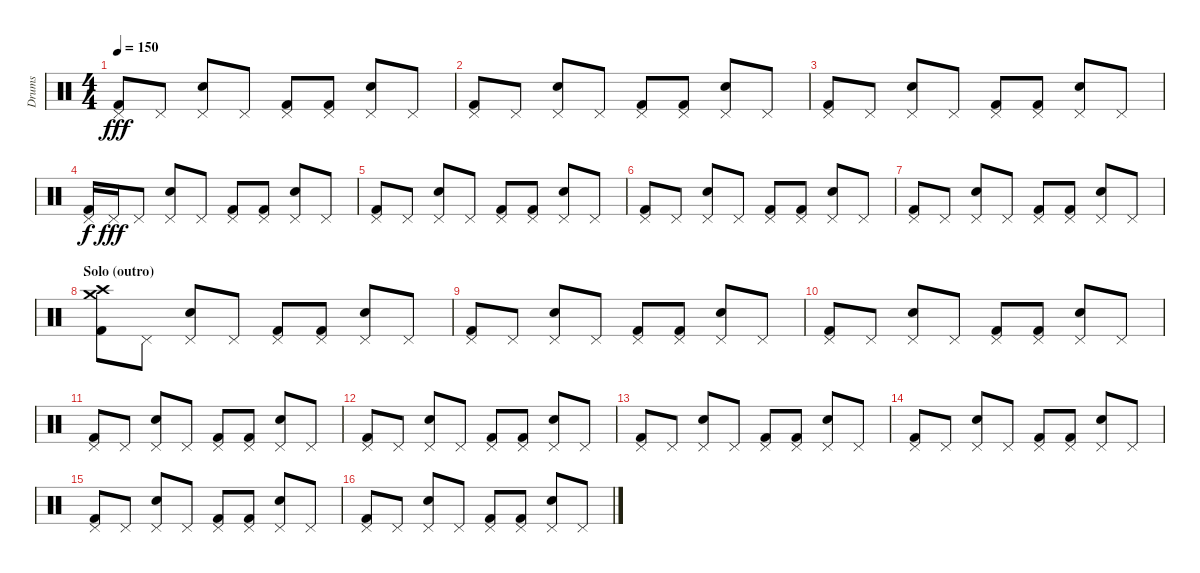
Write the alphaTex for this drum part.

\track ("Drums" "Drums") {instrument percussion}
\staff {score}
\articulation defaults
\ts (4 4)
\tempo 150
\clef neutral
\ks c
("Pedal Hi-Hat (hit)" "Kick (hit) 2").8{dy fff} "Pedal Hi-Hat (hit)".8 ("Pedal Hi-Hat (hit)" "Snare (hit) 2").8 "Pedal Hi-Hat (hit)".8 ("Pedal Hi-Hat (hit)" "Kick (hit) 2").8 ("Pedal Hi-Hat (hit)" "Kick (hit) 2").8 ("Pedal Hi-Hat (hit)" "Snare (hit) 2").8 "Pedal Hi-Hat (hit)".8 |
("Pedal Hi-Hat (hit)" "Kick (hit) 2").8 "Pedal Hi-Hat (hit)".8 ("Pedal Hi-Hat (hit)" "Snare (hit) 2").8 "Pedal Hi-Hat (hit)".8 ("Pedal Hi-Hat (hit)" "Kick (hit) 2").8 ("Pedal Hi-Hat (hit)" "Kick (hit) 2").8 ("Pedal Hi-Hat (hit)" "Snare (hit) 2").8 "Pedal Hi-Hat (hit)".8 |
("Pedal Hi-Hat (hit)" "Kick (hit) 2").8 "Pedal Hi-Hat (hit)".8 ("Pedal Hi-Hat (hit)" "Snare (hit) 2").8 "Pedal Hi-Hat (hit)".8 ("Pedal Hi-Hat (hit)" "Kick (hit) 2").8 ("Pedal Hi-Hat (hit)" "Kick (hit) 2").8 ("Pedal Hi-Hat (hit)" "Snare (hit) 2").8 "Pedal Hi-Hat (hit)".8 |
("Pedal Hi-Hat (hit)" "Kick (hit) 2").16{dy f} "Pedal Hi-Hat (hit)".16{dy fff} "Pedal Hi-Hat (hit)".8 ("Pedal Hi-Hat (hit)" "Snare (hit) 2").8 "Pedal Hi-Hat (hit)".8 ("Pedal Hi-Hat (hit)" "Kick (hit) 2").8 ("Pedal Hi-Hat (hit)" "Kick (hit) 2").8 ("Pedal Hi-Hat (hit)" "Snare (hit) 2").8 "Pedal Hi-Hat (hit)".8 |
("Pedal Hi-Hat (hit)" "Kick (hit) 2").8 "Pedal Hi-Hat (hit)".8 ("Pedal Hi-Hat (hit)" "Snare (hit) 2").8 "Pedal Hi-Hat (hit)".8 ("Pedal Hi-Hat (hit)" "Kick (hit) 2").8 ("Pedal Hi-Hat (hit)" "Kick (hit) 2").8 ("Pedal Hi-Hat (hit)" "Snare (hit) 2").8 "Pedal Hi-Hat (hit)".8 |
("Pedal Hi-Hat (hit)" "Kick (hit) 2").8 "Pedal Hi-Hat (hit)".8 ("Pedal Hi-Hat (hit)" "Snare (hit) 2").8 "Pedal Hi-Hat (hit)".8 ("Pedal Hi-Hat (hit)" "Kick (hit) 2").8 ("Pedal Hi-Hat (hit)" "Kick (hit) 2").8 ("Pedal Hi-Hat (hit)" "Snare (hit) 2").8 "Pedal Hi-Hat (hit)".8 |
("Pedal Hi-Hat (hit)" "Kick (hit) 2").8 "Pedal Hi-Hat (hit)".8 ("Pedal Hi-Hat (hit)" "Snare (hit) 2").8 "Pedal Hi-Hat (hit)".8 ("Pedal Hi-Hat (hit)" "Kick (hit) 2").8 ("Pedal Hi-Hat (hit)" "Kick (hit) 2").8 ("Pedal Hi-Hat (hit)" "Snare (hit) 2").8 "Pedal Hi-Hat (hit)".8 |
\section ("" "Solo (outro)")
("Crash medium (hit)" "Crash high (hit)" "Kick (hit) 2").8 "Pedal Hi-Hat (hit)".8 ("Pedal Hi-Hat (hit)" "Snare (hit) 2").8 "Pedal Hi-Hat (hit)".8 ("Pedal Hi-Hat (hit)" "Kick (hit) 2").8 ("Pedal Hi-Hat (hit)" "Kick (hit) 2").8 ("Pedal Hi-Hat (hit)" "Snare (hit) 2").8 "Pedal Hi-Hat (hit)".8 |
("Pedal Hi-Hat (hit)" "Kick (hit) 2").8 "Pedal Hi-Hat (hit)".8 ("Pedal Hi-Hat (hit)" "Snare (hit) 2").8 "Pedal Hi-Hat (hit)".8 ("Pedal Hi-Hat (hit)" "Kick (hit) 2").8 ("Pedal Hi-Hat (hit)" "Kick (hit) 2").8 ("Pedal Hi-Hat (hit)" "Snare (hit) 2").8 "Pedal Hi-Hat (hit)".8 |
("Pedal Hi-Hat (hit)" "Kick (hit) 2").8 "Pedal Hi-Hat (hit)".8 ("Pedal Hi-Hat (hit)" "Snare (hit) 2").8 "Pedal Hi-Hat (hit)".8 ("Pedal Hi-Hat (hit)" "Kick (hit) 2").8 ("Pedal Hi-Hat (hit)" "Kick (hit) 2").8 ("Pedal Hi-Hat (hit)" "Snare (hit) 2").8 "Pedal Hi-Hat (hit)".8 |
("Pedal Hi-Hat (hit)" "Kick (hit) 2").8 "Pedal Hi-Hat (hit)".8 ("Pedal Hi-Hat (hit)" "Snare (hit) 2").8 "Pedal Hi-Hat (hit)".8 ("Pedal Hi-Hat (hit)" "Kick (hit) 2").8 ("Pedal Hi-Hat (hit)" "Kick (hit) 2").8 ("Pedal Hi-Hat (hit)" "Snare (hit) 2").8 "Pedal Hi-Hat (hit)".8 |
("Pedal Hi-Hat (hit)" "Kick (hit) 2").8 "Pedal Hi-Hat (hit)".8 ("Pedal Hi-Hat (hit)" "Snare (hit) 2").8 "Pedal Hi-Hat (hit)".8 ("Pedal Hi-Hat (hit)" "Kick (hit) 2").8 ("Pedal Hi-Hat (hit)" "Kick (hit) 2").8 ("Pedal Hi-Hat (hit)" "Snare (hit) 2").8 "Pedal Hi-Hat (hit)".8 |
("Pedal Hi-Hat (hit)" "Kick (hit) 2").8 "Pedal Hi-Hat (hit)".8 ("Pedal Hi-Hat (hit)" "Snare (hit) 2").8 "Pedal Hi-Hat (hit)".8 ("Pedal Hi-Hat (hit)" "Kick (hit) 2").8 ("Pedal Hi-Hat (hit)" "Kick (hit) 2").8 ("Pedal Hi-Hat (hit)" "Snare (hit) 2").8 "Pedal Hi-Hat (hit)".8 |
("Pedal Hi-Hat (hit)" "Kick (hit) 2").8 "Pedal Hi-Hat (hit)".8 ("Pedal Hi-Hat (hit)" "Snare (hit) 2").8 "Pedal Hi-Hat (hit)".8 ("Pedal Hi-Hat (hit)" "Kick (hit) 2").8 ("Pedal Hi-Hat (hit)" "Kick (hit) 2").8 ("Pedal Hi-Hat (hit)" "Snare (hit) 2").8 "Pedal Hi-Hat (hit)".8 |
("Pedal Hi-Hat (hit)" "Kick (hit) 2").8 "Pedal Hi-Hat (hit)".8 ("Pedal Hi-Hat (hit)" "Snare (hit) 2").8 "Pedal Hi-Hat (hit)".8 ("Pedal Hi-Hat (hit)" "Kick (hit) 2").8 ("Pedal Hi-Hat (hit)" "Kick (hit) 2").8 ("Pedal Hi-Hat (hit)" "Snare (hit) 2").8 "Pedal Hi-Hat (hit)".8 |
("Pedal Hi-Hat (hit)" "Kick (hit) 2").8 "Pedal Hi-Hat (hit)".8 ("Pedal Hi-Hat (hit)" "Snare (hit) 2").8 "Pedal Hi-Hat (hit)".8 ("Pedal Hi-Hat (hit)" "Kick (hit) 2").8 ("Pedal Hi-Hat (hit)" "Kick (hit) 2").8 ("Pedal Hi-Hat (hit)" "Snare (hit) 2").8 "Pedal Hi-Hat (hit)".8
